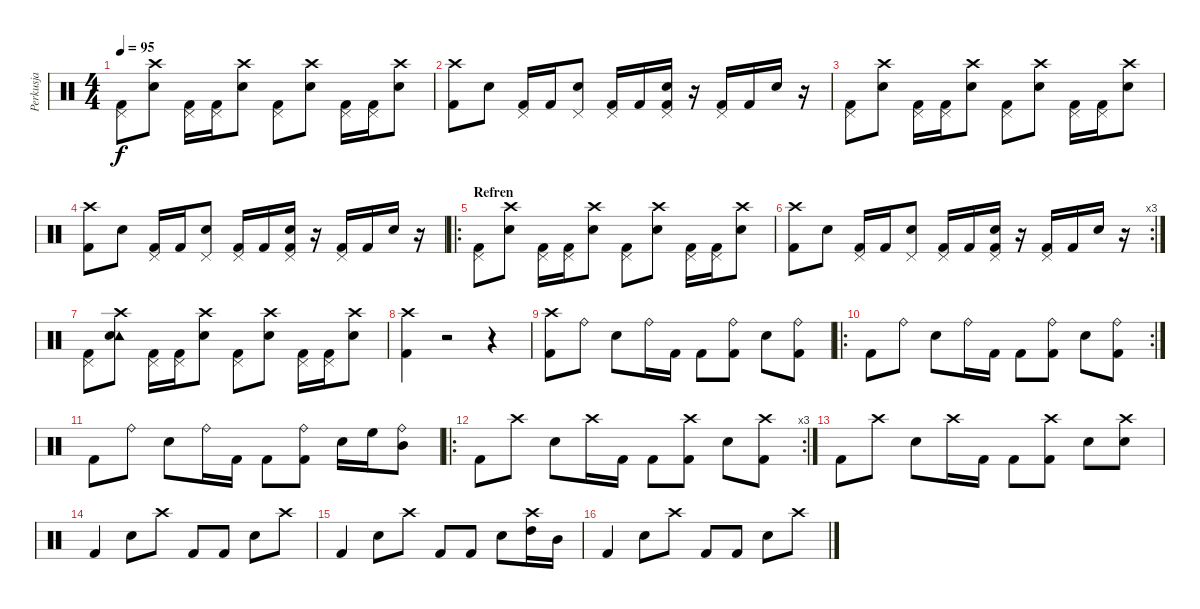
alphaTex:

\track ("Perkusja" "Perkusja") {instrument percussion}
\staff {score}
\articulation defaults
\ts (4 4)
\tempo 95
\clef neutral
\ks c
("Pedal Hi-Hat (hit)" "Kick (hit) 2").8{dy f} ("Crash high (hit)" "Snare (hit) 2").8 ("Pedal Hi-Hat (hit)" "Kick (hit) 2").16 ("Pedal Hi-Hat (hit)" "Kick (hit) 2").16 ("Crash high (hit)" "Snare (hit) 2").8 ("Pedal Hi-Hat (hit)" "Kick (hit) 2").8 ("Crash high (hit)" "Snare (hit) 2").8 ("Pedal Hi-Hat (hit)" "Kick (hit) 2").16 ("Pedal Hi-Hat (hit)" "Kick (hit) 2").16 ("Crash high (hit)" "Snare (hit) 2").8 |
("Crash high (hit)" "Kick (hit) 2").8 "Snare (hit) 2".8 ("Pedal Hi-Hat (hit)" "Kick (hit) 2").16 "Kick (hit) 2".16 ("Pedal Hi-Hat (hit)" "Snare (hit) 2").8 ("Pedal Hi-Hat (hit)" "Kick (hit) 2").16 "Kick (hit) 2".16 ("Pedal Hi-Hat (hit)" "Snare (hit) 2" "Kick (hit) 2").16 r.16 ("Pedal Hi-Hat (hit)" "Kick (hit) 2").16 "Kick (hit) 2".16 "Snare (hit) 2".16 r.16 |
("Pedal Hi-Hat (hit)" "Kick (hit) 2").8 ("Crash high (hit)" "Snare (hit) 2").8 ("Pedal Hi-Hat (hit)" "Kick (hit) 2").16 ("Pedal Hi-Hat (hit)" "Kick (hit) 2").16 ("Crash high (hit)" "Snare (hit) 2").8 ("Pedal Hi-Hat (hit)" "Kick (hit) 2").8 ("Crash high (hit)" "Snare (hit) 2").8 ("Pedal Hi-Hat (hit)" "Kick (hit) 2").16 ("Pedal Hi-Hat (hit)" "Kick (hit) 2").16 ("Crash high (hit)" "Snare (hit) 2").8 |
("Crash high (hit)" "Kick (hit) 2").8 "Snare (hit) 2".8 ("Pedal Hi-Hat (hit)" "Kick (hit) 2").16 "Kick (hit) 2".16 ("Pedal Hi-Hat (hit)" "Snare (hit) 2").8 ("Pedal Hi-Hat (hit)" "Kick (hit) 2").16 "Kick (hit) 2".16 ("Pedal Hi-Hat (hit)" "Snare (hit) 2" "Kick (hit) 2").16 r.16 ("Pedal Hi-Hat (hit)" "Kick (hit) 2").16 "Kick (hit) 2".16 "Snare (hit) 2".16 r.16 |
\ro
\section ("" "Refren")
("Pedal Hi-Hat (hit)" "Kick (hit) 2").8 ("Crash high (hit)" "Snare (hit) 2").8 ("Pedal Hi-Hat (hit)" "Kick (hit) 2").16 ("Pedal Hi-Hat (hit)" "Kick (hit) 2").16 ("Crash high (hit)" "Snare (hit) 2").8 ("Pedal Hi-Hat (hit)" "Kick (hit) 2").8 ("Crash high (hit)" "Snare (hit) 2").8 ("Pedal Hi-Hat (hit)" "Kick (hit) 2").16 ("Pedal Hi-Hat (hit)" "Kick (hit) 2").16 ("Crash high (hit)" "Snare (hit) 2").8 |
\rc 3
("Crash high (hit)" "Kick (hit) 2").8 "Snare (hit) 2".8 ("Pedal Hi-Hat (hit)" "Kick (hit) 2").16 "Kick (hit) 2".16 ("Pedal Hi-Hat (hit)" "Snare (hit) 2").8 ("Pedal Hi-Hat (hit)" "Kick (hit) 2").16 "Kick (hit) 2".16 ("Pedal Hi-Hat (hit)" "Snare (hit) 2" "Kick (hit) 2").16 r.16 ("Pedal Hi-Hat (hit)" "Kick (hit) 2").16 "Kick (hit) 2".16 "Snare (hit) 2".16 r.16 |
("Pedal Hi-Hat (hit)" "Kick (hit) 2").8 ("Tambourine (hit)" "Crash high (hit)" "Snare (hit) 2").8 ("Pedal Hi-Hat (hit)" "Kick (hit) 2").16 ("Pedal Hi-Hat (hit)" "Kick (hit) 2").16 ("Crash high (hit)" "Snare (hit) 2").8 ("Pedal Hi-Hat (hit)" "Kick (hit) 2").8 ("Crash high (hit)" "Snare (hit) 2").8 ("Pedal Hi-Hat (hit)" "Kick (hit) 2").16 ("Pedal Hi-Hat (hit)" "Kick (hit) 2").16 ("Crash high (hit)" "Snare (hit) 2").8 |
("Crash high (hit)" "Kick (hit) 2").4 r.2 r.4 |
("Crash high (hit)" "Kick (hit) 2").8 "Ride (bell)".8 "Snare (hit) 2".8 "Ride (bell)".16 "Kick (hit) 2".16 "Kick (hit) 2".8 ("Ride (bell)" "Kick (hit) 2").8 "Snare (hit) 2".8 ("Ride (bell)" "Kick (hit) 2").8 |
\ro
\rc 2 "Kick (hit) 2".8 "Ride (bell)".8 "Snare (hit) 2".8 "Ride (bell)".16 "Kick (hit) 2".16 "Kick (hit) 2".8
("Ride (bell)" "Kick (hit) 2").8 "Snare (hit) 2".8 ("Ride (bell)" "Kick (hit) 2").8 |
"Kick (hit) 2".8 "Ride (bell)".8 "Snare (hit) 2".8 "Ride (bell)".16 "Kick (hit) 2".16 "Kick (hit) 2".8 ("Ride (bell)" "Kick (hit) 2").8 "Snare (hit) 2".16 "High Floor Tom (hit)".16 ("Ride (bell)" "Mid Tom (hit)").8 |
\ro
\rc 3 "Kick (hit) 2".8 "Crash high (hit)".8 "Snare (hit) 2".8 "Crash high (hit)".16 "Kick (hit) 2".16 "Kick (hit) 2".8
("Crash high (hit)" "Kick (hit) 2").8 "Snare (hit) 2".8 ("Crash high (hit)" "Kick (hit) 2").8 |
"Kick (hit) 2".8 "Crash high (hit)".8 "Snare (hit) 2".8 "Crash high (hit)".16 "Kick (hit) 2".16 "Kick (hit) 2".8 ("Crash high (hit)" "Kick (hit) 2").8 "Snare (hit) 2".8 ("Crash high (hit)" "Snare (hit) 2").8 |
"Kick (hit) 2".4 "Snare (hit) 2".8 "Crash high (hit)".8 "Kick (hit) 2".8 "Kick (hit) 2".8 "Snare (hit) 2".8 "Crash high (hit)".8 |
"Kick (hit) 2".4 "Snare (hit) 2".8 "Crash high (hit)".8 "Kick (hit) 2".8 "Kick (hit) 2".8 "Snare (hit) 2".8 ("Crash high (hit)" "High Tom (hit)").16 "Mid Tom (hit)".16 |
"Kick (hit) 2".4 "Snare (hit) 2".8 "Crash high (hit)".8 "Kick (hit) 2".8 "Kick (hit) 2".8 "Snare (hit) 2".8 "Crash high (hit)".8
